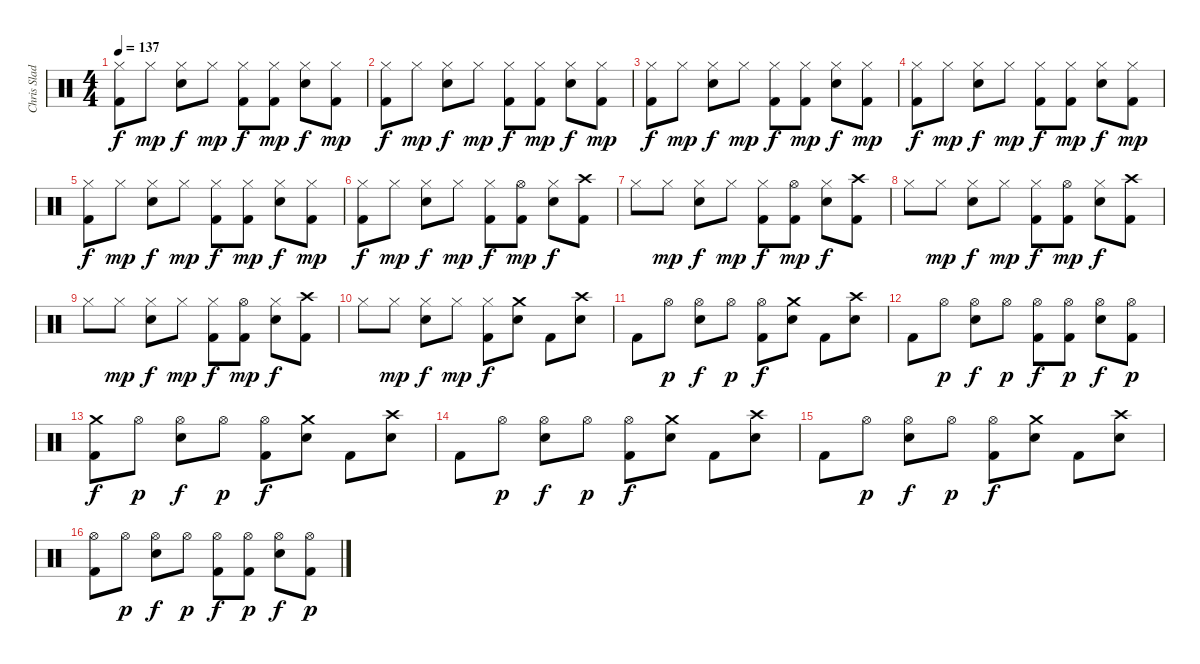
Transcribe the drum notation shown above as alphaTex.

\track ("Chris Slade / Drums" "Chris Slad") {instrument percussion}
\staff {score}
\articulation defaults
\ts (4 4)
\tempo 137
\clef neutral
\ks c
("Hi-Hat (closed)" "Kick (hit) 2").8{dy f} "Hi-Hat (closed)".8{dy mp} ("Hi-Hat (closed)" "Electric Snare (hit)").8{dy f} "Hi-Hat (closed)".8{dy mp} ("Hi-Hat (closed)" "Kick (hit) 2").8{dy f} ("Hi-Hat (closed)" "Kick (hit) 2").8{dy mp} ("Hi-Hat (closed)" "Electric Snare (hit)").8{dy f} ("Hi-Hat (closed)" "Kick (hit) 2").8{dy mp} |
("Hi-Hat (closed)" "Kick (hit) 2").8{dy f} "Hi-Hat (closed)".8{dy mp} ("Hi-Hat (closed)" "Electric Snare (hit)").8{dy f} "Hi-Hat (closed)".8{dy mp} ("Hi-Hat (closed)" "Kick (hit) 2").8{dy f} ("Hi-Hat (closed)" "Kick (hit) 2").8{dy mp} ("Hi-Hat (closed)" "Electric Snare (hit)").8{dy f} ("Hi-Hat (closed)" "Kick (hit) 2").8{dy mp} |
("Hi-Hat (closed)" "Kick (hit) 2").8{dy f} "Hi-Hat (closed)".8{dy mp} ("Hi-Hat (closed)" "Electric Snare (hit)").8{dy f} "Hi-Hat (closed)".8{dy mp} ("Hi-Hat (closed)" "Kick (hit) 2").8{dy f} ("Hi-Hat (closed)" "Kick (hit) 2").8{dy mp} ("Hi-Hat (closed)" "Electric Snare (hit)").8{dy f} ("Hi-Hat (closed)" "Kick (hit) 2").8{dy mp} |
("Hi-Hat (closed)" "Kick (hit) 2").8{dy f} "Hi-Hat (closed)".8{dy mp} ("Hi-Hat (closed)" "Electric Snare (hit)").8{dy f} "Hi-Hat (closed)".8{dy mp} ("Hi-Hat (closed)" "Kick (hit) 2").8{dy f} ("Hi-Hat (closed)" "Kick (hit) 2").8{dy mp} ("Hi-Hat (closed)" "Electric Snare (hit)").8{dy f} ("Hi-Hat (closed)" "Kick (hit) 2").8{dy mp} |
("Hi-Hat (closed)" "Kick (hit) 2").8{dy f} "Hi-Hat (closed)".8{dy mp} ("Hi-Hat (closed)" "Electric Snare (hit)").8{dy f} "Hi-Hat (closed)".8{dy mp} ("Hi-Hat (closed)" "Kick (hit) 2").8{dy f} ("Hi-Hat (closed)" "Kick (hit) 2").8{dy mp} ("Hi-Hat (closed)" "Electric Snare (hit)").8{dy f} ("Hi-Hat (closed)" "Kick (hit) 2").8{dy mp} |
("Hi-Hat (closed)" "Kick (hit) 2").8{dy f} "Hi-Hat (closed)".8{dy mp} ("Hi-Hat (closed)" "Electric Snare (hit)").8{dy f} "Hi-Hat (closed)".8{dy mp} ("Hi-Hat (closed)" "Kick (hit) 2").8{dy f} ("Hi-Hat (open)" "Kick (hit) 2").8{dy mp} ("Hi-Hat (closed)" "Electric Snare (hit)").8{dy f} ("Crash high (hit)" "Kick (hit) 2").8 |
"Hi-Hat (closed)".8 "Hi-Hat (closed)".8{dy mp} ("Hi-Hat (closed)" "Electric Snare (hit)").8{dy f} "Hi-Hat (closed)".8{dy mp} ("Hi-Hat (closed)" "Kick (hit) 2").8{dy f} ("Hi-Hat (open)" "Kick (hit) 2").8{dy mp} ("Hi-Hat (closed)" "Electric Snare (hit)").8{dy f} ("Crash high (hit)" "Kick (hit) 2").8 |
"Hi-Hat (closed)".8 "Hi-Hat (closed)".8{dy mp} ("Hi-Hat (closed)" "Electric Snare (hit)").8{dy f} "Hi-Hat (closed)".8{dy mp} ("Hi-Hat (closed)" "Kick (hit) 2").8{dy f} ("Hi-Hat (open)" "Kick (hit) 2").8{dy mp} ("Hi-Hat (closed)" "Electric Snare (hit)").8{dy f} ("Crash high (hit)" "Kick (hit) 2").8 |
"Hi-Hat (closed)".8 "Hi-Hat (closed)".8{dy mp} ("Hi-Hat (closed)" "Electric Snare (hit)").8{dy f} "Hi-Hat (closed)".8{dy mp} ("Hi-Hat (closed)" "Kick (hit) 2").8{dy f} ("Hi-Hat (open)" "Kick (hit) 2").8{dy mp} ("Hi-Hat (closed)" "Electric Snare (hit)").8{dy f} ("Crash high (hit)" "Kick (hit) 2").8 |
"Hi-Hat (closed)".8 "Hi-Hat (closed)".8{dy mp} ("Hi-Hat (closed)" "Electric Snare (hit)").8{dy f} "Hi-Hat (closed)".8{dy mp} ("Hi-Hat (closed)" "Kick (hit) 2").8{dy f} ("Crash medium (hit)" "Electric Snare (hit)").8 "Kick (hit) 2".8 ("Crash high (hit)" "Electric Snare (hit)").8 |
"Kick (hit) 2".8 "Hi-Hat (open)".8{dy p} ("Hi-Hat (open)" "Electric Snare (hit)").8{dy f} "Hi-Hat (open)".8{dy p} ("Hi-Hat (open)" "Kick (hit) 2").8{dy f} ("Crash medium (hit)" "Electric Snare (hit)").8 "Kick (hit) 2".8 ("Crash high (hit)" "Electric Snare (hit)").8 |
"Kick (hit) 2".8 "Hi-Hat (open)".8{dy p} ("Hi-Hat (open)" "Electric Snare (hit)").8{dy f} "Hi-Hat (open)".8{dy p} ("Hi-Hat (open)" "Kick (hit) 2").8{dy f} ("Hi-Hat (open)" "Kick (hit) 2").8{dy p} ("Hi-Hat (open)" "Electric Snare (hit)").8{dy f} ("Hi-Hat (open)" "Kick (hit) 2").8{dy p} |
("Crash medium (hit)" "Kick (hit) 2").8{dy f} "Hi-Hat (open)".8{dy p} ("Hi-Hat (open)" "Electric Snare (hit)").8{dy f} "Hi-Hat (open)".8{dy p} ("Hi-Hat (open)" "Kick (hit) 2").8{dy f} ("Crash medium (hit)" "Electric Snare (hit)").8 "Kick (hit) 2".8 ("Crash high (hit)" "Electric Snare (hit)").8 |
"Kick (hit) 2".8 "Hi-Hat (open)".8{dy p} ("Hi-Hat (open)" "Electric Snare (hit)").8{dy f} "Hi-Hat (open)".8{dy p} ("Kick (hit) 2" "Hi-Hat (open)").8{dy f} ("Electric Snare (hit)" "Crash medium (hit)").8 "Kick (hit) 2".8 ("Electric Snare (hit)" "Crash high (hit)").8 |
"Kick (hit) 2".8 "Hi-Hat (open)".8{dy p} ("Hi-Hat (open)" "Electric Snare (hit)").8{dy f} "Hi-Hat (open)".8{dy p} ("Hi-Hat (open)" "Kick (hit) 2").8{dy f} ("Crash medium (hit)" "Electric Snare (hit)").8 "Kick (hit) 2".8 ("Crash high (hit)" "Electric Snare (hit)").8 |
("Kick (hit) 2" "Hi-Hat (open)").8 "Hi-Hat (open)".8{dy p} ("Hi-Hat (open)" "Electric Snare (hit)").8{dy f} "Hi-Hat (open)".8{dy p} ("Hi-Hat (open)" "Kick (hit) 2").8{dy f} ("Hi-Hat (open)" "Kick (hit) 2").8{dy p} ("Hi-Hat (open)" "Electric Snare (hit)").8{dy f} ("Hi-Hat (open)" "Kick (hit) 2").8{dy p}
